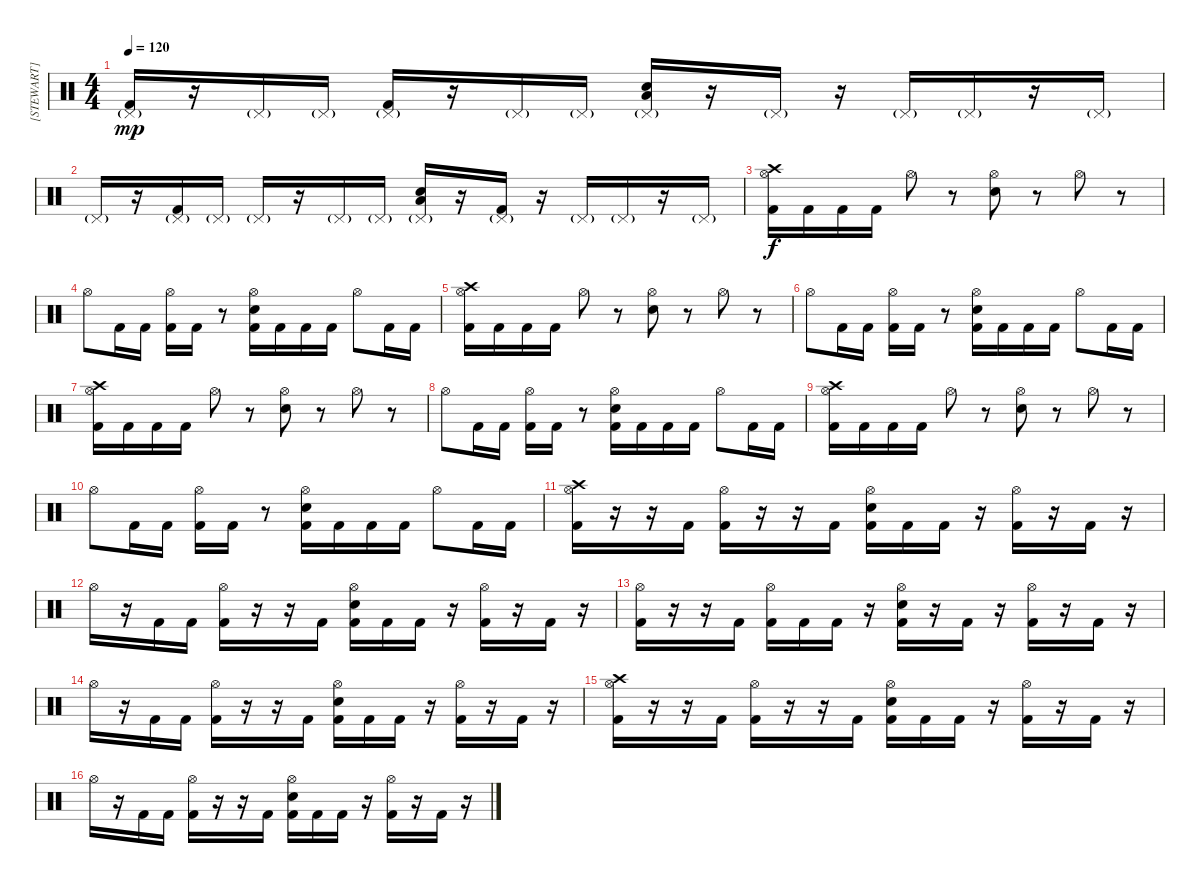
\track ("[STEWART]" "[STEWART]") {instrument percussion}
\staff {score}
\articulation defaults
\ts (4 4)
\tempo 120
\clef neutral
\ks c
("Pedal Hi-Hat (hit)"{g} "Kick (hit) 2").16{dy mp} r.16 "Pedal Hi-Hat (hit)"{g}.16 "Pedal Hi-Hat (hit)"{g}.16 ("Pedal Hi-Hat (hit)"{g} "Kick (hit) 2").16 r.16 "Pedal Hi-Hat (hit)"{g}.16 "Pedal Hi-Hat (hit)"{g}.16 ("Pedal Hi-Hat (hit)"{g} "Low Tom (hit)" "Electric Snare (hit)").16 r.16 "Pedal Hi-Hat (hit)"{g}.16 r.16 "Pedal Hi-Hat (hit)"{g}.16 "Pedal Hi-Hat (hit)"{g}.16 r.16 "Pedal Hi-Hat (hit)"{g}.16 |
"Pedal Hi-Hat (hit)"{g}.16 r.16 ("Pedal Hi-Hat (hit)"{g} "Kick (hit) 2").16 "Pedal Hi-Hat (hit)"{g}.16 "Pedal Hi-Hat (hit)"{g}.16 r.16 "Pedal Hi-Hat (hit)"{g}.16 "Pedal Hi-Hat (hit)"{g}.16 ("Pedal Hi-Hat (hit)"{g} "Low Tom (hit)" "Electric Snare (hit)").16 r.16 ("Pedal Hi-Hat (hit)"{g} "Kick (hit) 2").16 r.16 "Pedal Hi-Hat (hit)"{g}.16 "Pedal Hi-Hat (hit)"{g}.16 r.16 "Pedal Hi-Hat (hit)"{g}.16 |
("Crash high (hit)" "Kick (hit) 2" "Hi-Hat (open)").16{dy f} "Kick (hit) 2".16 "Kick (hit) 2".16 "Kick (hit) 2".16 "Hi-Hat (open)".8 r.8 ("Electric Snare (hit)" "Hi-Hat (open)").8 r.8 "Hi-Hat (open)".8 r.8 |
"Hi-Hat (open)".8 "Kick (hit) 2".16 "Kick (hit) 2".16 ("Kick (hit) 2" "Hi-Hat (open)").16 "Kick (hit) 2".16 r.8 ("Electric Snare (hit)" "Kick (hit) 2" "Hi-Hat (open)").16 "Kick (hit) 2".16 "Kick (hit) 2".16 "Kick (hit) 2".16 "Hi-Hat (open)".8 "Kick (hit) 2".16 "Kick (hit) 2".16 |
("Crash high (hit)" "Kick (hit) 2" "Hi-Hat (open)").16 "Kick (hit) 2".16 "Kick (hit) 2".16 "Kick (hit) 2".16 "Hi-Hat (open)".8 r.8 ("Electric Snare (hit)" "Hi-Hat (open)").8 r.8 "Hi-Hat (open)".8 r.8 |
"Hi-Hat (open)".8 "Kick (hit) 2".16 "Kick (hit) 2".16 ("Kick (hit) 2" "Hi-Hat (open)").16 "Kick (hit) 2".16 r.8 ("Electric Snare (hit)" "Kick (hit) 2" "Hi-Hat (open)").16 "Kick (hit) 2".16 "Kick (hit) 2".16 "Kick (hit) 2".16 "Hi-Hat (open)".8 "Kick (hit) 2".16 "Kick (hit) 2".16 |
("Crash high (hit)" "Kick (hit) 2" "Hi-Hat (open)").16 "Kick (hit) 2".16 "Kick (hit) 2".16 "Kick (hit) 2".16 "Hi-Hat (open)".8 r.8 ("Electric Snare (hit)" "Hi-Hat (open)").8 r.8 "Hi-Hat (open)".8 r.8 |
"Hi-Hat (open)".8 "Kick (hit) 2".16 "Kick (hit) 2".16 ("Kick (hit) 2" "Hi-Hat (open)").16 "Kick (hit) 2".16 r.8 ("Electric Snare (hit)" "Kick (hit) 2" "Hi-Hat (open)").16 "Kick (hit) 2".16 "Kick (hit) 2".16 "Kick (hit) 2".16 "Hi-Hat (open)".8 "Kick (hit) 2".16 "Kick (hit) 2".16 |
("Crash high (hit)" "Kick (hit) 2" "Hi-Hat (open)").16 "Kick (hit) 2".16 "Kick (hit) 2".16 "Kick (hit) 2".16 "Hi-Hat (open)".8 r.8 ("Electric Snare (hit)" "Hi-Hat (open)").8 r.8 "Hi-Hat (open)".8 r.8 |
"Hi-Hat (open)".8 "Kick (hit) 2".16 "Kick (hit) 2".16 ("Kick (hit) 2" "Hi-Hat (open)").16 "Kick (hit) 2".16 r.8 ("Electric Snare (hit)" "Kick (hit) 2" "Hi-Hat (open)").16 "Kick (hit) 2".16 "Kick (hit) 2".16 "Kick (hit) 2".16 "Hi-Hat (open)".8 "Kick (hit) 2".16 "Kick (hit) 2".16 |
("Crash high (hit)" "Kick (hit) 2" "Hi-Hat (open)").16 r.16 r.16 "Kick (hit) 2".16 ("Kick (hit) 2" "Hi-Hat (open)").16 r.16 r.16 "Kick (hit) 2".16 ("Electric Snare (hit)" "Kick (hit) 2" "Hi-Hat (open)").16 "Kick (hit) 2".16 "Kick (hit) 2".16 r.16 ("Kick (hit) 2" "Hi-Hat (open)").16 r.16 "Kick (hit) 2".16 r.16 |
"Hi-Hat (open)".16 r.16 "Kick (hit) 2".16 "Kick (hit) 2".16 ("Kick (hit) 2" "Hi-Hat (open)").16 r.16 r.16 "Kick (hit) 2".16 ("Electric Snare (hit)" "Kick (hit) 2" "Hi-Hat (open)").16 "Kick (hit) 2".16 "Kick (hit) 2".16 r.16 ("Kick (hit) 2" "Hi-Hat (open)").16 r.16 "Kick (hit) 2".16 r.16 |
("Kick (hit) 2" "Hi-Hat (open)").16 r.16 r.16 "Kick (hit) 2".16 ("Kick (hit) 2" "Hi-Hat (open)").16 "Kick (hit) 2".16 "Kick (hit) 2".16 r.16 ("Electric Snare (hit)" "Kick (hit) 2" "Hi-Hat (open)").16 r.16 "Kick (hit) 2".16 r.16 ("Kick (hit) 2" "Hi-Hat (open)").16 r.16 "Kick (hit) 2".16 r.16 |
"Hi-Hat (open)".16 r.16 "Kick (hit) 2".16 "Kick (hit) 2".16 ("Kick (hit) 2" "Hi-Hat (open)").16 r.16 r.16 "Kick (hit) 2".16 ("Electric Snare (hit)" "Kick (hit) 2" "Hi-Hat (open)").16 "Kick (hit) 2".16 "Kick (hit) 2".16 r.16 ("Kick (hit) 2" "Hi-Hat (open)").16 r.16 "Kick (hit) 2".16 r.16 |
("Crash high (hit)" "Kick (hit) 2" "Hi-Hat (open)").16 r.16 r.16 "Kick (hit) 2".16 ("Kick (hit) 2" "Hi-Hat (open)").16 r.16 r.16 "Kick (hit) 2".16 ("Electric Snare (hit)" "Kick (hit) 2" "Hi-Hat (open)").16 "Kick (hit) 2".16 "Kick (hit) 2".16 r.16 ("Kick (hit) 2" "Hi-Hat (open)").16 r.16 "Kick (hit) 2".16 r.16 |
"Hi-Hat (open)".16 r.16 "Kick (hit) 2".16 "Kick (hit) 2".16 ("Kick (hit) 2" "Hi-Hat (open)").16 r.16 r.16 "Kick (hit) 2".16 ("Electric Snare (hit)" "Kick (hit) 2" "Hi-Hat (open)").16 "Kick (hit) 2".16 "Kick (hit) 2".16 r.16 ("Kick (hit) 2" "Hi-Hat (open)").16 r.16 "Kick (hit) 2".16 r.16
